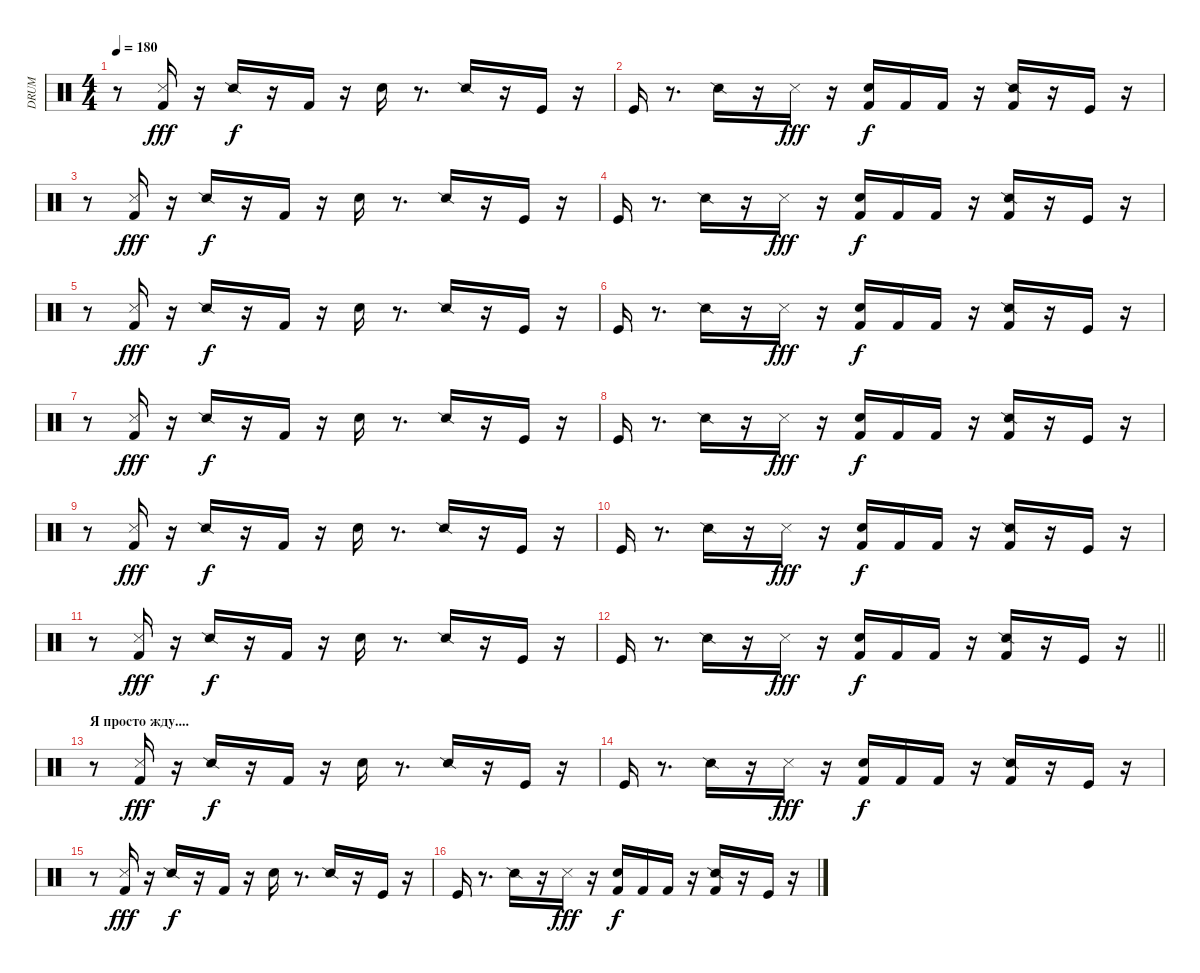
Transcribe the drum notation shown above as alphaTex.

\track ("DRUM" "DRUM") {instrument percussion}
\staff {score}
\articulation defaults
\ts (4 4)
\tempo 180
\clef neutral
\ks c
r.8{dy f} ("Snare (side stick) 3" "Kick (hit) 2").16{dy fff} r.16 "Snare (side stick) 2".16{dy f} r.16 "Kick (hit) 2".16 r.16 "Snare (hit) 2".16 r.8{d} "Snare (side stick) 2".16 r.16 "Kick (hit)".16 r.16 |
"Kick (hit)".16 r.8{d} "Snare (side stick) 2".16 r.16 "Snare (side stick) 3".16{dy fff} r.16 ("Kick (hit) 2" "Snare (hit) 2").16{dy f} "Kick (hit) 2".16 "Kick (hit) 2".16 r.16 ("Snare (side stick) 2" "Kick (hit) 2").16 r.16 "Kick (hit)".16 r.16 |
r.8 ("Snare (side stick) 3" "Kick (hit) 2").16{dy fff} r.16 "Snare (side stick) 2".16{dy f} r.16 "Kick (hit) 2".16 r.16 "Snare (hit) 2".16 r.8{d} "Snare (side stick) 2".16 r.16 "Kick (hit)".16 r.16 |
"Kick (hit)".16 r.8{d} "Snare (side stick) 2".16 r.16 "Snare (side stick) 3".16{dy fff} r.16 ("Kick (hit) 2" "Snare (hit) 2").16{dy f} "Kick (hit) 2".16 "Kick (hit) 2".16 r.16 ("Snare (side stick) 2" "Kick (hit) 2").16 r.16 "Kick (hit)".16 r.16 |
r.8 ("Snare (side stick) 3" "Kick (hit) 2").16{dy fff} r.16 "Snare (side stick) 2".16{dy f} r.16 "Kick (hit) 2".16 r.16 "Snare (hit) 2".16 r.8{d} "Snare (side stick) 2".16 r.16 "Kick (hit)".16 r.16 |
"Kick (hit)".16 r.8{d} "Snare (side stick) 2".16 r.16 "Snare (side stick) 3".16{dy fff} r.16 ("Kick (hit) 2" "Snare (hit) 2").16{dy f} "Kick (hit) 2".16 "Kick (hit) 2".16 r.16 ("Snare (side stick) 2" "Kick (hit) 2").16 r.16 "Kick (hit)".16 r.16 |
r.8 ("Snare (side stick) 3" "Kick (hit) 2").16{dy fff} r.16 "Snare (side stick) 2".16{dy f} r.16 "Kick (hit) 2".16 r.16 "Snare (hit) 2".16 r.8{d} "Snare (side stick) 2".16 r.16 "Kick (hit)".16 r.16 |
"Kick (hit)".16 r.8{d} "Snare (side stick) 2".16 r.16 "Snare (side stick) 3".16{dy fff} r.16 ("Kick (hit) 2" "Snare (hit) 2").16{dy f} "Kick (hit) 2".16 "Kick (hit) 2".16 r.16 ("Snare (side stick) 2" "Kick (hit) 2").16 r.16 "Kick (hit)".16 r.16 |
r.8 ("Snare (side stick) 3" "Kick (hit) 2").16{dy fff} r.16 "Snare (side stick) 2".16{dy f} r.16 "Kick (hit) 2".16 r.16 "Snare (hit) 2".16 r.8{d} "Snare (side stick) 2".16 r.16 "Kick (hit)".16 r.16 |
"Kick (hit)".16 r.8{d} "Snare (side stick) 2".16 r.16 "Snare (side stick) 3".16{dy fff} r.16 ("Kick (hit) 2" "Snare (hit) 2").16{dy f} "Kick (hit) 2".16 "Kick (hit) 2".16 r.16 ("Snare (side stick) 2" "Kick (hit) 2").16 r.16 "Kick (hit)".16 r.16 |
r.8 ("Snare (side stick) 3" "Kick (hit) 2").16{dy fff} r.16 "Snare (side stick) 2".16{dy f} r.16 "Kick (hit) 2".16 r.16 "Snare (hit) 2".16 r.8{d} "Snare (side stick) 2".16 r.16 "Kick (hit)".16 r.16 |
\barLineRight lightlight "Kick (hit)".16
r.8{d} "Snare (side stick) 2".16 r.16 "Snare (side stick) 3".16{dy fff} r.16 ("Kick (hit) 2" "Snare (hit) 2").16{dy f} "Kick (hit) 2".16 "Kick (hit) 2".16 r.16 ("Snare (side stick) 2" "Kick (hit) 2").16 r.16 "Kick (hit)".16 r.16 |
\section ("" "Я просто жду....")
r.8 ("Snare (side stick) 3" "Kick (hit) 2").16{dy fff} r.16 "Snare (side stick) 2".16{dy f} r.16 "Kick (hit) 2".16 r.16 "Snare (hit) 2".16 r.8{d} "Snare (side stick) 2".16 r.16 "Kick (hit)".16 r.16 |
"Kick (hit)".16 r.8{d} "Snare (side stick) 2".16 r.16 "Snare (side stick) 3".16{dy fff} r.16 ("Kick (hit) 2" "Snare (hit) 2").16{dy f} "Kick (hit) 2".16 "Kick (hit) 2".16 r.16 ("Snare (side stick) 2" "Kick (hit) 2").16 r.16 "Kick (hit)".16 r.16 |
r.8 ("Snare (side stick) 3" "Kick (hit) 2").16{dy fff} r.16 "Snare (side stick) 2".16{dy f} r.16 "Kick (hit) 2".16 r.16 "Snare (hit) 2".16 r.8{d} "Snare (side stick) 2".16 r.16 "Kick (hit)".16 r.16 |
"Kick (hit)".16 r.8{d} "Snare (side stick) 2".16 r.16 "Snare (side stick) 3".16{dy fff} r.16 ("Kick (hit) 2" "Snare (hit) 2").16{dy f} "Kick (hit) 2".16 "Kick (hit) 2".16 r.16 ("Snare (side stick) 2" "Kick (hit) 2").16 r.16 "Kick (hit)".16 r.16
